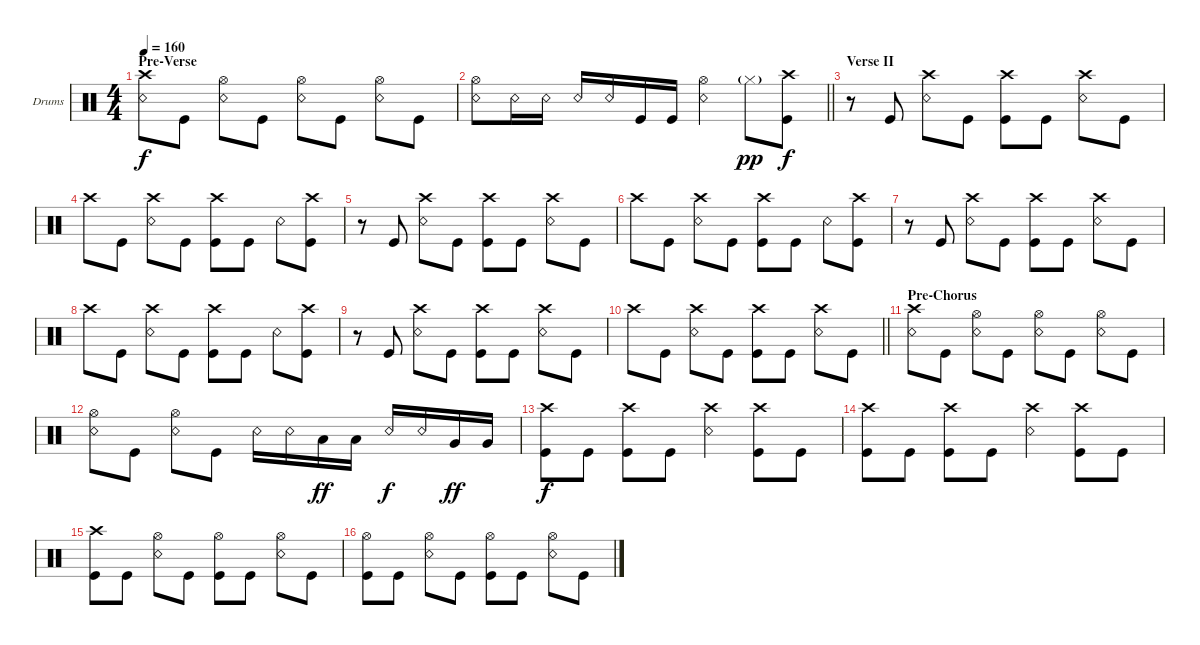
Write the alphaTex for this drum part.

\bracketExtendMode groupsimilarinstruments
\firstSystemTrackNameOrientation horizontal
\otherSystemsTrackNameOrientation horizontal
\track ("Drums" "Drums") {instrument percussion}
\staff {score}
\articulation defaults
\ts (4 4)
\section ("" "Pre-Verse")
\tempo 160
\clef neutral
\ks c
("Snare (rim shot)" "Crash high (hit)").8{dy f} "Kick (hit)".8 ("Snare (rim shot)" "Hi-Hat (open)").8 "Kick (hit)".8 ("Snare (rim shot)" "Hi-Hat (open)").8 "Kick (hit)".8 ("Snare (rim shot)" "Hi-Hat (open)").8 "Kick (hit)".8 |
\barLineRight lightlight
("Snare (rim shot)" "Hi-Hat (open)").8 "Snare (rim shot)".16 "Snare (rim shot)".16 "Snare (rim shot)".16 "Snare (rim shot)".16 "Kick (hit)".16 "Kick (hit)".16 ("Snare (rim shot)" "Hi-Hat (open)").4 "Hi-Hat (closed)"{g}.8{dy pp} ("Kick (hit)" "Crash high (hit)").8{dy f} |
\section ("" "Verse II")
r.8 "Kick (hit)".8 ("Crash high (hit)" "Snare (rim shot)").8 "Kick (hit)".8 ("Crash high (hit)" "Kick (hit)").8 "Kick (hit)".8 ("Crash high (hit)" "Snare (rim shot)").8 "Kick (hit)".8 |
"Crash high (hit)".8 "Kick (hit)".8 ("Crash high (hit)" "Snare (rim shot)").8 "Kick (hit)".8 ("Crash high (hit)" "Kick (hit)").8 "Kick (hit)".8 "Snare (rim shot)".8 ("Kick (hit)" "Crash high (hit)").8 |
r.8 "Kick (hit)".8 ("Crash high (hit)" "Snare (rim shot)").8 "Kick (hit)".8 ("Crash high (hit)" "Kick (hit)").8 "Kick (hit)".8 ("Crash high (hit)" "Snare (rim shot)").8 "Kick (hit)".8 |
"Crash high (hit)".8 "Kick (hit)".8 ("Crash high (hit)" "Snare (rim shot)").8 "Kick (hit)".8 ("Crash high (hit)" "Kick (hit)").8 "Kick (hit)".8 "Snare (rim shot)".8 ("Kick (hit)" "Crash high (hit)").8 |
r.8 "Kick (hit)".8 ("Crash high (hit)" "Snare (rim shot)").8 "Kick (hit)".8 ("Crash high (hit)" "Kick (hit)").8 "Kick (hit)".8 ("Crash high (hit)" "Snare (rim shot)").8 "Kick (hit)".8 |
"Crash high (hit)".8 "Kick (hit)".8 ("Crash high (hit)" "Snare (rim shot)").8 "Kick (hit)".8 ("Crash high (hit)" "Kick (hit)").8 "Kick (hit)".8 "Snare (rim shot)".8 ("Kick (hit)" "Crash high (hit)").8 |
r.8 "Kick (hit)".8 ("Crash high (hit)" "Snare (rim shot)").8 "Kick (hit)".8 ("Crash high (hit)" "Kick (hit)").8 "Kick (hit)".8 ("Snare (rim shot)" "Crash high (hit)").8 "Kick (hit)".8 |
\barLineRight lightlight "Crash high (hit)".8 "Kick (hit)".8
("Crash high (hit)" "Snare (rim shot)").8 "Kick (hit)".8 ("Crash high (hit)" "Kick (hit)").8 "Kick (hit)".8 ("Crash high (hit)" "Snare (rim shot)").8 "Kick (hit)".8 |
\section ("" "Pre-Chorus")
("Snare (rim shot)" "Crash high (hit)").8 "Kick (hit)".8 ("Hi-Hat (open)" "Snare (rim shot)").8 "Kick (hit)".8 ("Hi-Hat (open)" "Snare (rim shot)").8 "Kick (hit)".8 ("Hi-Hat (open)" "Snare (rim shot)").8 "Kick (hit)".8 |
("Hi-Hat (open)" "Snare (rim shot)").8 "Kick (hit)".8 ("Hi-Hat (open)" "Snare (rim shot)").8 "Kick (hit)".8 "Snare (rim shot)".16 "Snare (rim shot)".16 "Low Tom (hit)".16{dy ff} "Low Tom (hit)".16 "Snare (rim shot)".16{dy f} "Snare (rim shot)".16 "Very Low Tom (hit)".16{dy ff} "Very Low Tom (hit)".16 |
("Kick (hit)" "Crash high (hit)").8{dy f} "Kick (hit)".8 ("Kick (hit)" "Crash high (hit)").8 "Kick (hit)".8 ("Snare (rim shot)" "Crash high (hit)").4 ("Kick (hit)" "Crash high (hit)").8 "Kick (hit)".8 |
("Kick (hit)" "Crash high (hit)").8 "Kick (hit)".8 ("Kick (hit)" "Crash high (hit)").8 "Kick (hit)".8 ("Snare (rim shot)" "Crash high (hit)").4 ("Kick (hit)" "Crash high (hit)").8 "Kick (hit)".8 |
("Kick (hit)" "Crash high (hit)").8 "Kick (hit)".8 ("Hi-Hat (open)" "Snare (rim shot)").8 "Kick (hit)".8 ("Hi-Hat (open)" "Kick (hit)").8 "Kick (hit)".8 ("Hi-Hat (open)" "Snare (rim shot)").8 "Kick (hit)".8 |
("Hi-Hat (open)" "Kick (hit)").8 "Kick (hit)".8 ("Hi-Hat (open)" "Snare (rim shot)").8 "Kick (hit)".8 ("Hi-Hat (open)" "Kick (hit)").8 "Kick (hit)".8 ("Hi-Hat (open)" "Snare (rim shot)").8 "Kick (hit)".8
